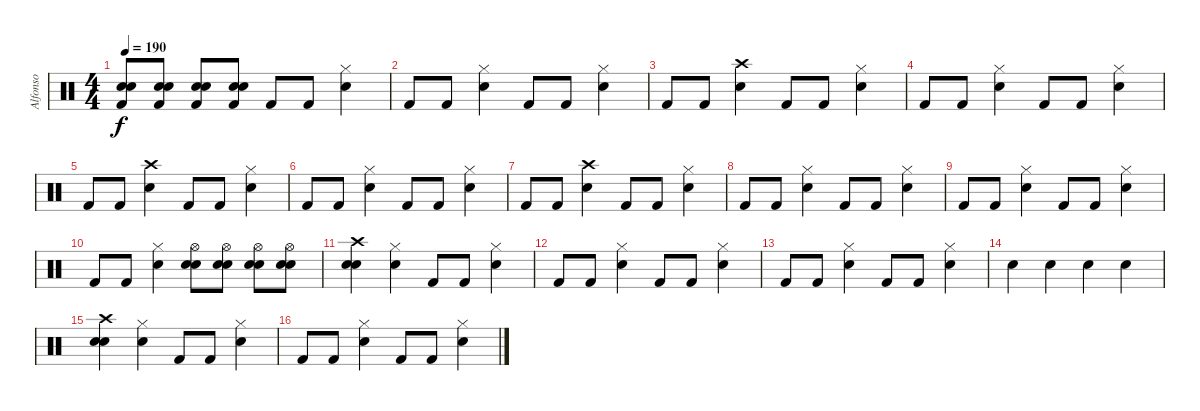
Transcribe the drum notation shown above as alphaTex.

\track ("Alfonso" "Alfonso") {instrument percussion}
\staff {score}
\articulation defaults
\ts (4 4)
\tempo 190
\clef neutral
\ks c
("Kick (hit) 2" "Electric Snare (hit)" "Snare (hit) 2").8{dy f} ("Kick (hit) 2" "Electric Snare (hit)" "Snare (hit) 2").8 ("Kick (hit) 2" "Electric Snare (hit)" "Snare (hit) 2").8 ("Kick (hit) 2" "Electric Snare (hit)" "Snare (hit) 2").8 "Kick (hit) 2".8 "Kick (hit) 2".8 ("Hi-Hat (closed)" "Electric Snare (hit)").4 |
"Kick (hit) 2".8 "Kick (hit) 2".8 ("Hi-Hat (closed)" "Electric Snare (hit)").4 "Kick (hit) 2".8 "Kick (hit) 2".8 ("Hi-Hat (closed)" "Electric Snare (hit)").4 |
"Kick (hit) 2".8 "Kick (hit) 2".8 ("Crash high (hit)" "Electric Snare (hit)").4 "Kick (hit) 2".8 "Kick (hit) 2".8 ("Hi-Hat (closed)" "Electric Snare (hit)").4 |
"Kick (hit) 2".8 "Kick (hit) 2".8 ("Hi-Hat (closed)" "Electric Snare (hit)").4 "Kick (hit) 2".8 "Kick (hit) 2".8 ("Hi-Hat (closed)" "Electric Snare (hit)").4 |
"Kick (hit) 2".8 "Kick (hit) 2".8 ("Crash high (hit)" "Electric Snare (hit)").4 "Kick (hit) 2".8 "Kick (hit) 2".8 ("Hi-Hat (closed)" "Electric Snare (hit)").4 |
"Kick (hit) 2".8 "Kick (hit) 2".8 ("Hi-Hat (closed)" "Electric Snare (hit)").4 "Kick (hit) 2".8 "Kick (hit) 2".8 ("Hi-Hat (closed)" "Electric Snare (hit)").4 |
"Kick (hit) 2".8 "Kick (hit) 2".8 ("Crash high (hit)" "Electric Snare (hit)").4 "Kick (hit) 2".8 "Kick (hit) 2".8 ("Hi-Hat (closed)" "Electric Snare (hit)").4 |
"Kick (hit) 2".8 "Kick (hit) 2".8 ("Hi-Hat (closed)" "Electric Snare (hit)").4 "Kick (hit) 2".8 "Kick (hit) 2".8 ("Hi-Hat (closed)" "Electric Snare (hit)").4 |
"Kick (hit) 2".8 "Kick (hit) 2".8 ("Hi-Hat (closed)" "Electric Snare (hit)").4 "Kick (hit) 2".8 "Kick (hit) 2".8 ("Hi-Hat (closed)" "Electric Snare (hit)").4 |
"Kick (hit) 2".8 "Kick (hit) 2".8 ("Hi-Hat (closed)" "Electric Snare (hit)").4 ("Hi-Hat (open)" "Electric Snare (hit)" "Snare (hit) 2").8 ("Hi-Hat (open)" "Electric Snare (hit)" "Snare (hit) 2").8 ("Hi-Hat (open)" "Electric Snare (hit)" "Snare (hit) 2").8 ("Hi-Hat (open)" "Electric Snare (hit)" "Snare (hit) 2").8 |
("Crash high (hit)" "Electric Snare (hit)" "Snare (hit) 2").4 ("Hi-Hat (closed)" "Electric Snare (hit)").4 "Kick (hit) 2".8 "Kick (hit) 2".8 ("Hi-Hat (closed)" "Electric Snare (hit)").4 |
"Kick (hit) 2".8 "Kick (hit) 2".8 ("Hi-Hat (closed)" "Electric Snare (hit)").4 "Kick (hit) 2".8 "Kick (hit) 2".8 ("Hi-Hat (closed)" "Electric Snare (hit)").4 |
"Kick (hit) 2".8 "Kick (hit) 2".8 ("Hi-Hat (closed)" "Electric Snare (hit)").4 "Kick (hit) 2".8 "Kick (hit) 2".8 ("Hi-Hat (closed)" "Electric Snare (hit)").4 |
"Electric Snare (hit)".4 "Electric Snare (hit)".4 "Electric Snare (hit)".4 "Electric Snare (hit)".4 |
("Crash high (hit)" "Electric Snare (hit)" "Snare (hit) 2").4 ("Hi-Hat (closed)" "Electric Snare (hit)").4 "Kick (hit) 2".8 "Kick (hit) 2".8 ("Hi-Hat (closed)" "Electric Snare (hit)").4 |
"Kick (hit) 2".8 "Kick (hit) 2".8 ("Hi-Hat (closed)" "Electric Snare (hit)").4 "Kick (hit) 2".8 "Kick (hit) 2".8 ("Hi-Hat (closed)" "Electric Snare (hit)").4
